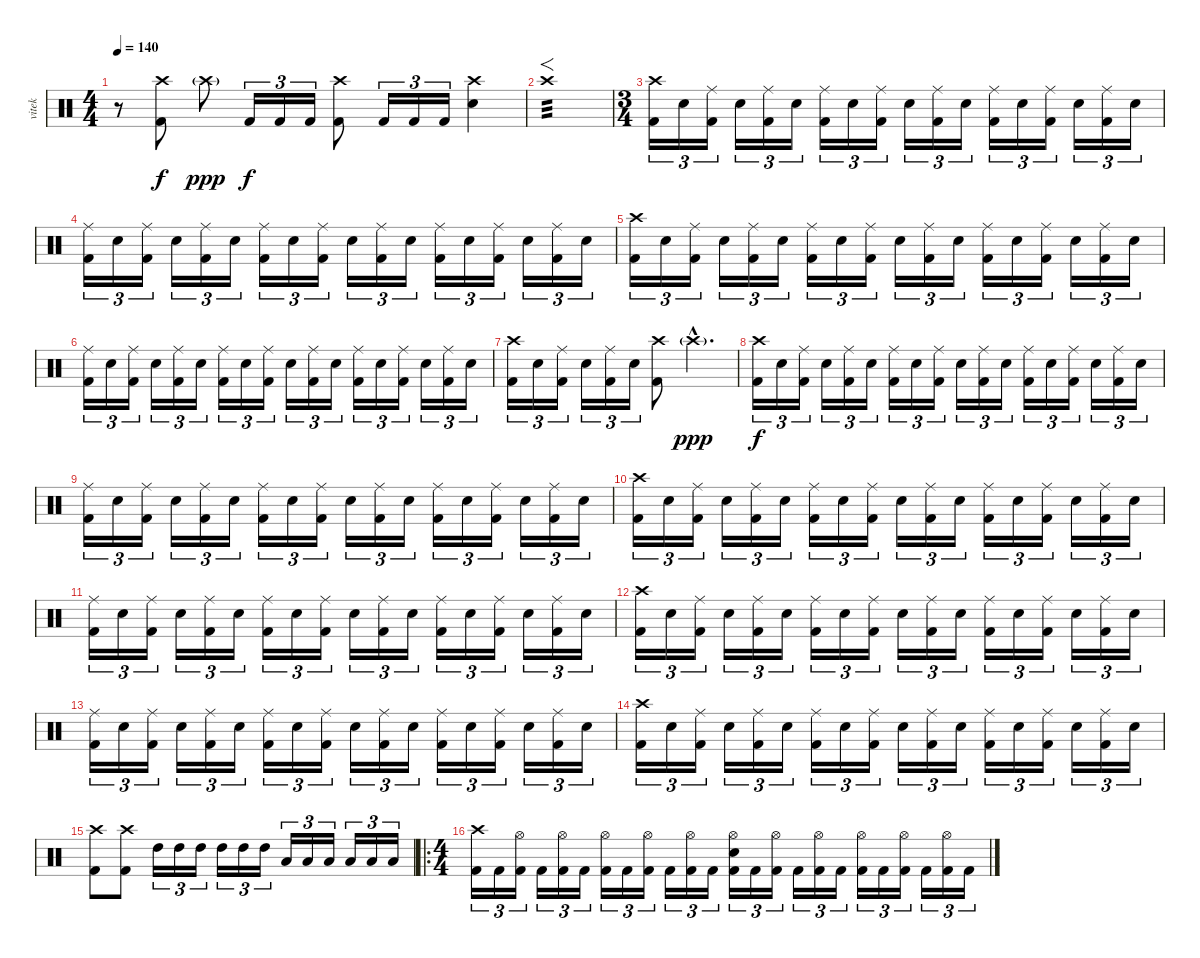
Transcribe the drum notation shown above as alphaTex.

\track ("vitek" "vitek") {instrument percussion}
\staff {score}
\articulation defaults
\ts (4 4)
\tempo 140
\clef neutral
\ks c
r.8{dy f} ("Crash high (hit)"{pm} "Kick (hit) 2").8 "Crash high (hit)"{g}.8{dy ppp} "Kick (hit) 2".16{tu (3 2) dy f} "Kick (hit) 2".16{tu (3 2)} "Kick (hit) 2".16{tu (3 2)} ("Crash high (hit)" "Kick (hit) 2").8 "Kick (hit) 2".16{tu (3 2)} "Kick (hit) 2".16{tu (3 2)} "Kick (hit) 2".16{tu (3 2)} ("Crash high (hit)" "Electric Snare (hit)").4 |
"Crash high (hit)".1{f tp 3} |
\ts (3 4)
\section ("" "")
("Crash high (hit)" "Kick (hit) 2").16{tu (3 2)} "Electric Snare (hit)".16{tu (3 2)} ("Ride (middle)" "Kick (hit) 2").16{tu (3 2)} "Electric Snare (hit)".16{tu (3 2)} ("Ride (middle)" "Kick (hit) 2").16{tu (3 2)} "Electric Snare (hit)".16{tu (3 2)} ("Ride (middle)" "Kick (hit) 2").16{tu (3 2)} "Electric Snare (hit)".16{tu (3 2)} ("Ride (middle)" "Kick (hit) 2").16{tu (3 2)} "Electric Snare (hit)".16{tu (3 2)} ("Ride (middle)" "Kick (hit) 2").16{tu (3 2)} "Electric Snare (hit)".16{tu (3 2)} ("Ride (middle)" "Kick (hit) 2").16{tu (3 2)} "Electric Snare (hit)".16{tu (3 2)} ("Ride (middle)" "Kick (hit) 2").16{tu (3 2)} "Electric Snare (hit)".16{tu (3 2)} ("Ride (middle)" "Kick (hit) 2").16{tu (3 2)} "Electric Snare (hit)".16{tu (3 2)} |
("Ride (middle)" "Kick (hit) 2").16{tu (3 2)} "Electric Snare (hit)".16{tu (3 2)} ("Ride (middle)" "Kick (hit) 2").16{tu (3 2)} "Electric Snare (hit)".16{tu (3 2)} ("Ride (middle)" "Kick (hit) 2").16{tu (3 2)} "Electric Snare (hit)".16{tu (3 2)} ("Ride (middle)" "Kick (hit) 2").16{tu (3 2)} "Electric Snare (hit)".16{tu (3 2)} ("Ride (middle)" "Kick (hit) 2").16{tu (3 2)} "Electric Snare (hit)".16{tu (3 2)} ("Ride (middle)" "Kick (hit) 2").16{tu (3 2)} "Electric Snare (hit)".16{tu (3 2)} ("Ride (middle)" "Kick (hit) 2").16{tu (3 2)} "Electric Snare (hit)".16{tu (3 2)} ("Ride (middle)" "Kick (hit) 2").16{tu (3 2)} "Electric Snare (hit)".16{tu (3 2)} ("Ride (middle)" "Kick (hit) 2").16{tu (3 2)} "Electric Snare (hit)".16{tu (3 2)} |
("Crash high (hit)" "Kick (hit) 2").16{tu (3 2)} "Electric Snare (hit)".16{tu (3 2)} ("Ride (middle)" "Kick (hit) 2").16{tu (3 2)} "Electric Snare (hit)".16{tu (3 2)} ("Ride (middle)" "Kick (hit) 2").16{tu (3 2)} "Electric Snare (hit)".16{tu (3 2)} ("Ride (middle)" "Kick (hit) 2").16{tu (3 2)} "Electric Snare (hit)".16{tu (3 2)} ("Ride (middle)" "Kick (hit) 2").16{tu (3 2)} "Electric Snare (hit)".16{tu (3 2)} ("Ride (middle)" "Kick (hit) 2").16{tu (3 2)} "Electric Snare (hit)".16{tu (3 2)} ("Ride (middle)" "Kick (hit) 2").16{tu (3 2)} "Electric Snare (hit)".16{tu (3 2)} ("Ride (middle)" "Kick (hit) 2").16{tu (3 2)} "Electric Snare (hit)".16{tu (3 2)} ("Ride (middle)" "Kick (hit) 2").16{tu (3 2)} "Electric Snare (hit)".16{tu (3 2)} |
("Ride (middle)" "Kick (hit) 2").16{tu (3 2)} "Electric Snare (hit)".16{tu (3 2)} ("Ride (middle)" "Kick (hit) 2").16{tu (3 2)} "Electric Snare (hit)".16{tu (3 2)} ("Ride (middle)" "Kick (hit) 2").16{tu (3 2)} "Electric Snare (hit)".16{tu (3 2)} ("Ride (middle)" "Kick (hit) 2").16{tu (3 2)} "Electric Snare (hit)".16{tu (3 2)} ("Ride (middle)" "Kick (hit) 2").16{tu (3 2)} "Electric Snare (hit)".16{tu (3 2)} ("Ride (middle)" "Kick (hit) 2").16{tu (3 2)} "Electric Snare (hit)".16{tu (3 2)} ("Ride (middle)" "Kick (hit) 2").16{tu (3 2)} "Electric Snare (hit)".16{tu (3 2)} ("Ride (middle)" "Kick (hit) 2").16{tu (3 2)} "Electric Snare (hit)".16{tu (3 2)} ("Ride (middle)" "Kick (hit) 2").16{tu (3 2)} "Electric Snare (hit)".16{tu (3 2)} |
("Crash high (hit)" "Kick (hit) 2").16{tu (3 2)} "Electric Snare (hit)".16{tu (3 2)} ("Ride (middle)" "Kick (hit) 2").16{tu (3 2)} "Electric Snare (hit)".16{tu (3 2)} ("Ride (middle)" "Kick (hit) 2").16{tu (3 2)} "Electric Snare (hit)".16{tu (3 2)} ("Crash high (hit)" "Kick (hit) 2").8 "Crash high (hit)"{g hac}.4{d dy ppp} |
("Crash high (hit)" "Kick (hit) 2").16{tu (3 2) dy f} "Electric Snare (hit)".16{tu (3 2)} ("Ride (middle)" "Kick (hit) 2").16{tu (3 2)} "Electric Snare (hit)".16{tu (3 2)} ("Ride (middle)" "Kick (hit) 2").16{tu (3 2)} "Electric Snare (hit)".16{tu (3 2)} ("Ride (middle)" "Kick (hit) 2").16{tu (3 2)} "Electric Snare (hit)".16{tu (3 2)} ("Ride (middle)" "Kick (hit) 2").16{tu (3 2)} "Electric Snare (hit)".16{tu (3 2)} ("Ride (middle)" "Kick (hit) 2").16{tu (3 2)} "Electric Snare (hit)".16{tu (3 2)} ("Ride (middle)" "Kick (hit) 2").16{tu (3 2)} "Electric Snare (hit)".16{tu (3 2)} ("Ride (middle)" "Kick (hit) 2").16{tu (3 2)} "Electric Snare (hit)".16{tu (3 2)} ("Ride (middle)" "Kick (hit) 2").16{tu (3 2)} "Electric Snare (hit)".16{tu (3 2)} |
("Ride (middle)" "Kick (hit) 2").16{tu (3 2)} "Electric Snare (hit)".16{tu (3 2)} ("Ride (middle)" "Kick (hit) 2").16{tu (3 2)} "Electric Snare (hit)".16{tu (3 2)} ("Ride (middle)" "Kick (hit) 2").16{tu (3 2)} "Electric Snare (hit)".16{tu (3 2)} ("Ride (middle)" "Kick (hit) 2").16{tu (3 2)} "Electric Snare (hit)".16{tu (3 2)} ("Ride (middle)" "Kick (hit) 2").16{tu (3 2)} "Electric Snare (hit)".16{tu (3 2)} ("Ride (middle)" "Kick (hit) 2").16{tu (3 2)} "Electric Snare (hit)".16{tu (3 2)} ("Ride (middle)" "Kick (hit) 2").16{tu (3 2)} "Electric Snare (hit)".16{tu (3 2)} ("Ride (middle)" "Kick (hit) 2").16{tu (3 2)} "Electric Snare (hit)".16{tu (3 2)} ("Ride (middle)" "Kick (hit) 2").16{tu (3 2)} "Electric Snare (hit)".16{tu (3 2)} |
("Crash high (hit)" "Kick (hit) 2").16{tu (3 2)} "Electric Snare (hit)".16{tu (3 2)} ("Ride (middle)" "Kick (hit) 2").16{tu (3 2)} "Electric Snare (hit)".16{tu (3 2)} ("Ride (middle)" "Kick (hit) 2").16{tu (3 2)} "Electric Snare (hit)".16{tu (3 2)} ("Ride (middle)" "Kick (hit) 2").16{tu (3 2)} "Electric Snare (hit)".16{tu (3 2)} ("Ride (middle)" "Kick (hit) 2").16{tu (3 2)} "Electric Snare (hit)".16{tu (3 2)} ("Ride (middle)" "Kick (hit) 2").16{tu (3 2)} "Electric Snare (hit)".16{tu (3 2)} ("Ride (middle)" "Kick (hit) 2").16{tu (3 2)} "Electric Snare (hit)".16{tu (3 2)} ("Ride (middle)" "Kick (hit) 2").16{tu (3 2)} "Electric Snare (hit)".16{tu (3 2)} ("Ride (middle)" "Kick (hit) 2").16{tu (3 2)} "Electric Snare (hit)".16{tu (3 2)} |
("Ride (middle)" "Kick (hit) 2").16{tu (3 2)} "Electric Snare (hit)".16{tu (3 2)} ("Ride (middle)" "Kick (hit) 2").16{tu (3 2)} "Electric Snare (hit)".16{tu (3 2)} ("Ride (middle)" "Kick (hit) 2").16{tu (3 2)} "Electric Snare (hit)".16{tu (3 2)} ("Ride (middle)" "Kick (hit) 2").16{tu (3 2)} "Electric Snare (hit)".16{tu (3 2)} ("Ride (middle)" "Kick (hit) 2").16{tu (3 2)} "Electric Snare (hit)".16{tu (3 2)} ("Ride (middle)" "Kick (hit) 2").16{tu (3 2)} "Electric Snare (hit)".16{tu (3 2)} ("Ride (middle)" "Kick (hit) 2").16{tu (3 2)} "Electric Snare (hit)".16{tu (3 2)} ("Ride (middle)" "Kick (hit) 2").16{tu (3 2)} "Electric Snare (hit)".16{tu (3 2)} ("Ride (middle)" "Kick (hit) 2").16{tu (3 2)} "Electric Snare (hit)".16{tu (3 2)} |
("Crash high (hit)" "Kick (hit) 2").16{tu (3 2)} "Electric Snare (hit)".16{tu (3 2)} ("Ride (middle)" "Kick (hit) 2").16{tu (3 2)} "Electric Snare (hit)".16{tu (3 2)} ("Ride (middle)" "Kick (hit) 2").16{tu (3 2)} "Electric Snare (hit)".16{tu (3 2)} ("Ride (middle)" "Kick (hit) 2").16{tu (3 2)} "Electric Snare (hit)".16{tu (3 2)} ("Ride (middle)" "Kick (hit) 2").16{tu (3 2)} "Electric Snare (hit)".16{tu (3 2)} ("Ride (middle)" "Kick (hit) 2").16{tu (3 2)} "Electric Snare (hit)".16{tu (3 2)} ("Ride (middle)" "Kick (hit) 2").16{tu (3 2)} "Electric Snare (hit)".16{tu (3 2)} ("Ride (middle)" "Kick (hit) 2").16{tu (3 2)} "Electric Snare (hit)".16{tu (3 2)} ("Ride (middle)" "Kick (hit) 2").16{tu (3 2)} "Electric Snare (hit)".16{tu (3 2)} |
("Ride (middle)" "Kick (hit) 2").16{tu (3 2)} "Electric Snare (hit)".16{tu (3 2)} ("Ride (middle)" "Kick (hit) 2").16{tu (3 2)} "Electric Snare (hit)".16{tu (3 2)} ("Ride (middle)" "Kick (hit) 2").16{tu (3 2)} "Electric Snare (hit)".16{tu (3 2)} ("Ride (middle)" "Kick (hit) 2").16{tu (3 2)} "Electric Snare (hit)".16{tu (3 2)} ("Ride (middle)" "Kick (hit) 2").16{tu (3 2)} "Electric Snare (hit)".16{tu (3 2)} ("Ride (middle)" "Kick (hit) 2").16{tu (3 2)} "Electric Snare (hit)".16{tu (3 2)} ("Ride (middle)" "Kick (hit) 2").16{tu (3 2)} "Electric Snare (hit)".16{tu (3 2)} ("Ride (middle)" "Kick (hit) 2").16{tu (3 2)} "Electric Snare (hit)".16{tu (3 2)} ("Ride (middle)" "Kick (hit) 2").16{tu (3 2)} "Electric Snare (hit)".16{tu (3 2)} |
("Crash high (hit)" "Kick (hit) 2").16{tu (3 2)} "Electric Snare (hit)".16{tu (3 2)} ("Ride (middle)" "Kick (hit) 2").16{tu (3 2)} "Electric Snare (hit)".16{tu (3 2)} ("Ride (middle)" "Kick (hit) 2").16{tu (3 2)} "Electric Snare (hit)".16{tu (3 2)} ("Ride (middle)" "Kick (hit) 2").16{tu (3 2)} "Electric Snare (hit)".16{tu (3 2)} ("Ride (middle)" "Kick (hit) 2").16{tu (3 2)} "Electric Snare (hit)".16{tu (3 2)} ("Ride (middle)" "Kick (hit) 2").16{tu (3 2)} "Electric Snare (hit)".16{tu (3 2)} ("Ride (middle)" "Kick (hit) 2").16{tu (3 2)} "Electric Snare (hit)".16{tu (3 2)} ("Ride (middle)" "Kick (hit) 2").16{tu (3 2)} "Electric Snare (hit)".16{tu (3 2)} ("Ride (middle)" "Kick (hit) 2").16{tu (3 2)} "Electric Snare (hit)".16{tu (3 2)} |
("Crash high (hit)" "Kick (hit) 2").8 ("Crash high (hit)" "Kick (hit) 2").8 "High Tom (hit)".16{tu (3 2)} "High Tom (hit)".16{tu (3 2)} "High Tom (hit)".16{tu (3 2)} "High Tom (hit)".16{tu (3 2)} "High Tom (hit)".16{tu (3 2)} "High Tom (hit)".16{tu (3 2)} "Low Tom (hit)".16{tu (3 2)} "Low Tom (hit)".16{tu (3 2)} "Low Tom (hit)".16{tu (3 2)} "Low Tom (hit)".16{tu (3 2)} "Low Tom (hit)".16{tu (3 2)} "Low Tom (hit)".16{tu (3 2)} |
\ro
\ts (4 4)
\section ("" "")
("Crash high (hit)" "Kick (hit) 2").16{tu (3 2)} "Kick (hit) 2".16{tu (3 2)} ("Hi-Hat (open)" "Kick (hit) 2").16{tu (3 2)} "Kick (hit) 2".16{tu (3 2)} ("Hi-Hat (open)" "Kick (hit) 2").16{tu (3 2)} "Kick (hit) 2".16{tu (3 2)} ("Hi-Hat (open)" "Kick (hit) 2").16{tu (3 2)} "Kick (hit) 2".16{tu (3 2)} ("Hi-Hat (open)" "Kick (hit) 2").16{tu (3 2)} "Kick (hit) 2".16{tu (3 2)} ("Hi-Hat (open)" "Kick (hit) 2").16{tu (3 2)} "Kick (hit) 2".16{tu (3 2)} ("Hi-Hat (open)" "Electric Snare (hit)" "Kick (hit) 2").16{tu (3 2)} "Kick (hit) 2".16{tu (3 2)} ("Hi-Hat (open)" "Kick (hit) 2").16{tu (3 2)} "Kick (hit) 2".16{tu (3 2)} ("Hi-Hat (open)" "Kick (hit) 2").16{tu (3 2)} "Kick (hit) 2".16{tu (3 2)} ("Hi-Hat (open)" "Kick (hit) 2").16{tu (3 2)} "Kick (hit) 2".16{tu (3 2)} ("Hi-Hat (open)" "Kick (hit) 2").16{tu (3 2)} "Kick (hit) 2".16{tu (3 2)} ("Hi-Hat (open)" "Kick (hit) 2").16{tu (3 2)} "Kick (hit) 2".16{tu (3 2)}
